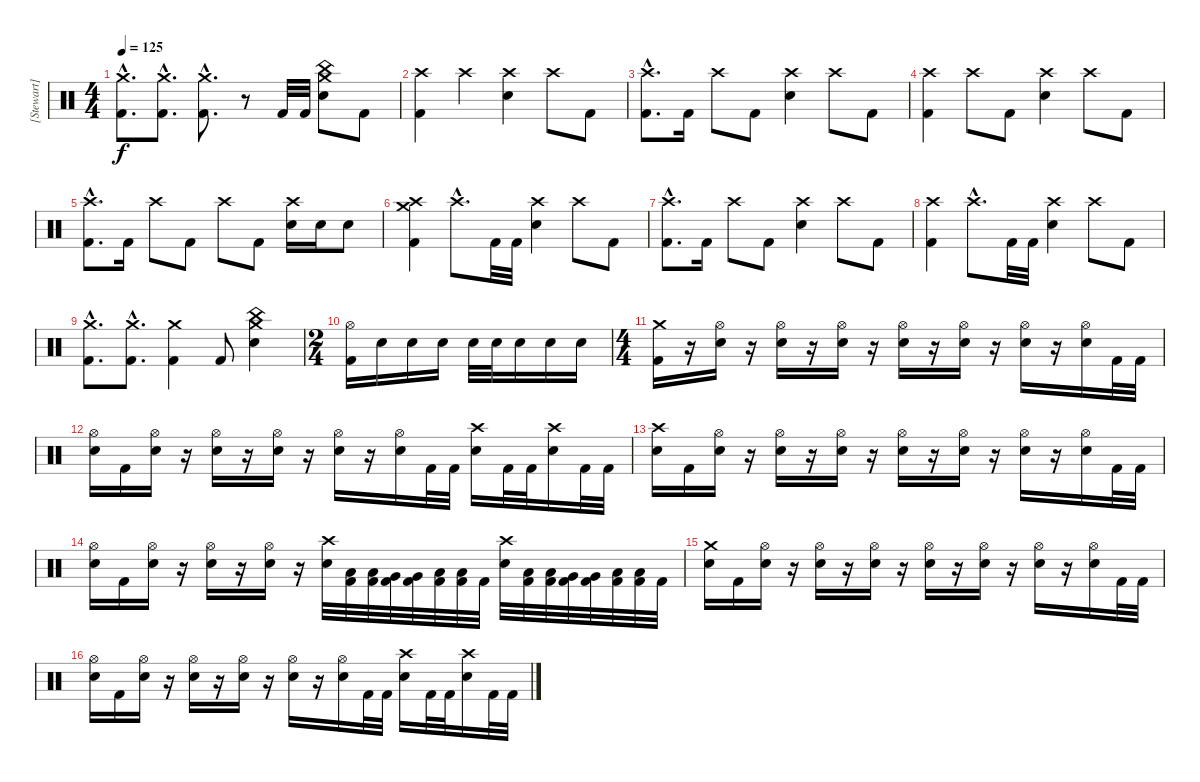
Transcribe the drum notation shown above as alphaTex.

\track ("[Stewart]" "[Stewart]") {instrument percussion}
\staff {score}
\articulation defaults
\ts (4 4)
\tempo 125
\clef neutral
\ks c
("Crash medium (hit)"{hac} "Kick (hit) 2"{hac}).8{d dy f} ("Crash medium (hit)"{hac} "Kick (hit) 2"{hac}).8{d} ("Crash medium (hit)"{hac} "Kick (hit) 2"{hac}).8{d} r.8 "Kick (hit) 2".32 "Kick (hit) 2".32 ("Crash medium (hit)" "China (hit)" "Electric Snare (hit)").8 "Kick (hit) 2".8 |
("Crash high (hit)" "Kick (hit) 2").4 "Crash high (hit)".4 ("Crash high (hit)" "Electric Snare (hit)").4 "Crash high (hit)".8 "Kick (hit) 2".8 |
("Crash high (hit)"{hac} "Kick (hit) 2"{hac}).8{d} "Kick (hit) 2".16 "Crash high (hit)".8 "Kick (hit) 2".8 ("Crash high (hit)" "Electric Snare (hit)").4 "Crash high (hit)".8 "Kick (hit) 2".8 |
("Crash high (hit)" "Kick (hit) 2").4 "Crash high (hit)".8 "Kick (hit) 2".8 ("Crash high (hit)" "Electric Snare (hit)").4 "Crash high (hit)".8 "Kick (hit) 2".8 |
("Crash high (hit)"{hac} "Kick (hit) 2"{hac}).8{d} "Kick (hit) 2".16 "Crash high (hit)".8 "Kick (hit) 2".8 "Crash high (hit)".8 "Kick (hit) 2".8 ("Crash high (hit)" "Electric Snare (hit)").16 "Electric Snare (hit)".16 "Electric Snare (hit)".8 |
("Crash high (hit)" "Crash medium (hit)" "Kick (hit) 2").4 "Crash high (hit)"{hac}.8{d} "Kick (hit) 2".32 "Kick (hit) 2".32 ("Crash high (hit)" "Electric Snare (hit)").4 "Crash high (hit)".8 "Kick (hit) 2".8 |
("Crash high (hit)"{hac} "Kick (hit) 2"{hac}).8{d} "Kick (hit) 2".16 "Crash high (hit)".8 "Kick (hit) 2".8 ("Crash high (hit)" "Electric Snare (hit)").4 "Crash high (hit)".8 "Kick (hit) 2".8 |
("Crash high (hit)" "Kick (hit) 2").4 "Crash high (hit)"{hac}.8{d} "Kick (hit) 2".32 "Kick (hit) 2".32 ("Crash high (hit)" "Electric Snare (hit)").4 "Crash high (hit)".8 "Kick (hit) 2".8 |
("Crash medium (hit)"{hac} "Kick (hit) 2"{hac}).8{d} ("Crash medium (hit)"{hac} "Kick (hit) 2"{hac}).8{d} ("Crash medium (hit)" "Kick (hit) 2").4 "Kick (hit) 2".8 ("Crash medium (hit)" "China (hit)" "Electric Snare (hit)").4 |
\ts (2 4)
("Hi-Hat (open)" "Kick (hit) 2").16 "Electric Snare (hit)".16 "Electric Snare (hit)".16 "Electric Snare (hit)".16 "Electric Snare (hit)".32 "Electric Snare (hit)".32 "Electric Snare (hit)".16 "Electric Snare (hit)".16 "Electric Snare (hit)".16 |
\ts (4 4)
("Crash medium (hit)" "Kick (hit) 2").16 r.16 ("Hi-Hat (open)" "Electric Snare (hit)").16 r.16 ("Hi-Hat (open)" "Electric Snare (hit)").16 r.16 ("Hi-Hat (open)" "Electric Snare (hit)").16 r.16 ("Hi-Hat (open)" "Electric Snare (hit)").16 r.16 ("Hi-Hat (open)" "Electric Snare (hit)").16 r.16 ("Hi-Hat (open)" "Electric Snare (hit)").16 r.16 ("Hi-Hat (open)" "Electric Snare (hit)").16 "Kick (hit) 2".32 "Kick (hit) 2".32 |
("Hi-Hat (open)" "Electric Snare (hit)").16 "Kick (hit) 2".16 ("Hi-Hat (open)" "Electric Snare (hit)").16 r.16 ("Hi-Hat (open)" "Electric Snare (hit)").16 r.16 ("Hi-Hat (open)" "Electric Snare (hit)").16 r.16 ("Hi-Hat (open)" "Electric Snare (hit)").16 r.16 ("Hi-Hat (open)" "Electric Snare (hit)").16 "Kick (hit) 2".32 "Kick (hit) 2".32 ("Crash high (hit)" "Electric Snare (hit)").16 "Kick (hit) 2".32 "Kick (hit) 2".32 ("Crash high (hit)" "Electric Snare (hit)").16 "Kick (hit) 2".32 "Kick (hit) 2".32 |
("Crash high (hit)" "Electric Snare (hit)").16 "Kick (hit) 2".16 ("Hi-Hat (open)" "Electric Snare (hit)").16 r.16 ("Hi-Hat (open)" "Electric Snare (hit)").16 r.16 ("Hi-Hat (open)" "Electric Snare (hit)").16 r.16 ("Hi-Hat (open)" "Electric Snare (hit)").16 r.16 ("Hi-Hat (open)" "Electric Snare (hit)").16 r.16 ("Hi-Hat (open)" "Electric Snare (hit)").16 r.16 ("Hi-Hat (open)" "Electric Snare (hit)").16 "Kick (hit) 2".32 "Kick (hit) 2".32 |
("Hi-Hat (open)" "Electric Snare (hit)").16 "Kick (hit) 2".16 ("Hi-Hat (open)" "Electric Snare (hit)").16 r.16 ("Hi-Hat (open)" "Electric Snare (hit)").16 r.16 ("Hi-Hat (open)" "Electric Snare (hit)").16 r.16 ("Crash high (hit)" "Electric Snare (hit)").32 ("Low Tom (hit)" "Kick (hit) 2").32 ("Low Tom (hit)" "Kick (hit) 2").32 ("Very Low Tom (hit)" "Kick (hit) 2").32 ("Very Low Tom (hit)" "Kick (hit) 2").32 ("Low Tom (hit)" "Kick (hit) 2").32 ("Low Tom (hit)" "Kick (hit) 2").32 "Kick (hit) 2".32 ("Crash high (hit)" "Electric Snare (hit)").32 ("Low Tom (hit)" "Kick (hit) 2").32 ("Low Tom (hit)" "Kick (hit) 2").32 ("Very Low Tom (hit)" "Kick (hit) 2").32 ("Very Low Tom (hit)" "Kick (hit) 2").32 ("Low Tom (hit)" "Kick (hit) 2").32 ("Low Tom (hit)" "Kick (hit) 2").32 "Kick (hit) 2".32 |
("Crash medium (hit)" "Electric Snare (hit)").16 "Kick (hit) 2".16 ("Hi-Hat (open)" "Electric Snare (hit)").16 r.16 ("Hi-Hat (open)" "Electric Snare (hit)").16 r.16 ("Hi-Hat (open)" "Electric Snare (hit)").16 r.16 ("Hi-Hat (open)" "Electric Snare (hit)").16 r.16 ("Hi-Hat (open)" "Electric Snare (hit)").16 r.16 ("Hi-Hat (open)" "Electric Snare (hit)").16 r.16 ("Hi-Hat (open)" "Electric Snare (hit)").16 "Kick (hit) 2".32 "Kick (hit) 2".32 |
("Hi-Hat (open)" "Electric Snare (hit)").16 "Kick (hit) 2".16 ("Hi-Hat (open)" "Electric Snare (hit)").16 r.16 ("Hi-Hat (open)" "Electric Snare (hit)").16 r.16 ("Hi-Hat (open)" "Electric Snare (hit)").16 r.16 ("Hi-Hat (open)" "Electric Snare (hit)").16 r.16 ("Hi-Hat (open)" "Electric Snare (hit)").16 "Kick (hit) 2".32 "Kick (hit) 2".32 ("Crash high (hit)" "Electric Snare (hit)").16 "Kick (hit) 2".32 "Kick (hit) 2".32 ("Crash high (hit)" "Electric Snare (hit)").16 "Kick (hit) 2".32 "Kick (hit) 2".32
